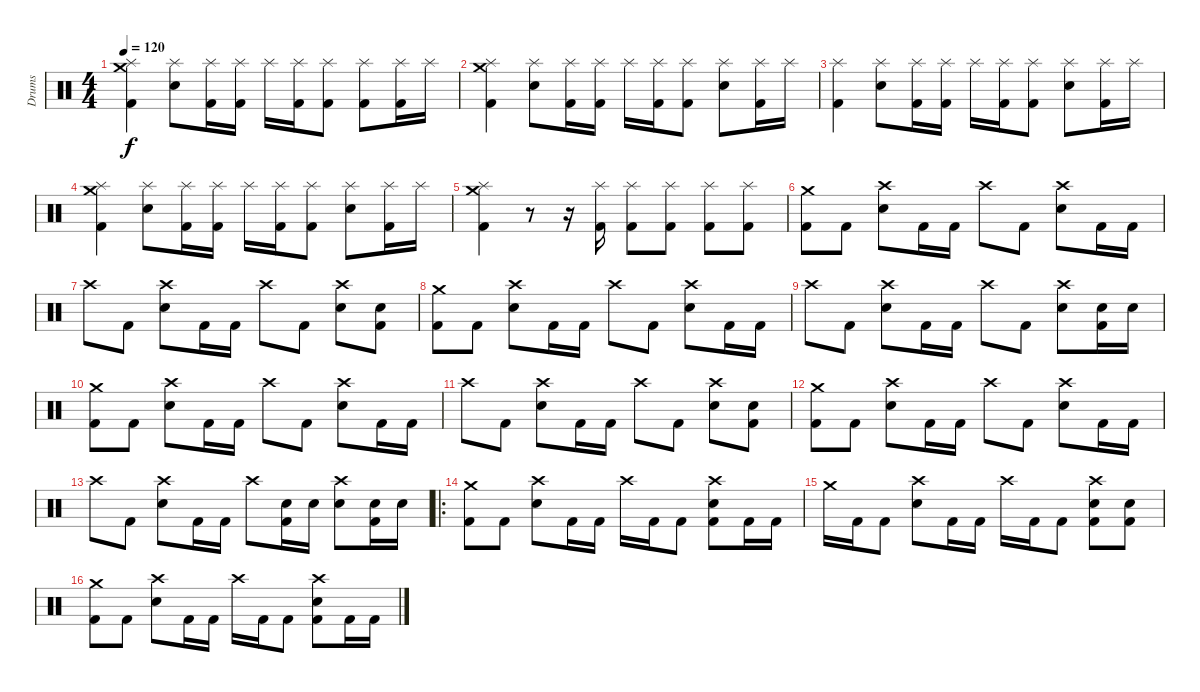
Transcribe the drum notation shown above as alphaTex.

\track ("Drums" "Drums") {instrument percussion}
\staff {score}
\articulation defaults
\ts (4 4)
\tempo 120
\clef neutral
\ks c
("Kick (hit) 2" "Splash (hit)" "Crash medium (hit)").4{dy f} ("Snare (hit) 2" "Splash (hit)").8 ("Kick (hit) 2" "Splash (hit)").16 ("Kick (hit) 2" "Splash (hit)").16 "Splash (hit)".16 ("Kick (hit) 2" "Splash (hit)").16 ("Kick (hit) 2" "Splash (hit)").8 ("Kick (hit) 2" "Splash (hit)").8 ("Kick (hit) 2" "Splash (hit)").16 "Splash (hit)".16 |
("Kick (hit) 2" "Splash (hit)" "Crash medium (hit)").4 ("Snare (hit) 2" "Splash (hit)").8 ("Kick (hit) 2" "Splash (hit)").16 ("Kick (hit) 2" "Splash (hit)").16 "Splash (hit)".16 ("Kick (hit) 2" "Splash (hit)").16 ("Kick (hit) 2" "Splash (hit)").8 ("Snare (hit) 2" "Splash (hit)").8 ("Kick (hit) 2" "Splash (hit)").16 "Splash (hit)".16 |
("Kick (hit) 2" "Splash (hit)").4 ("Snare (hit) 2" "Splash (hit)").8 ("Kick (hit) 2" "Splash (hit)").16 ("Kick (hit) 2" "Splash (hit)").16 "Splash (hit)".16 ("Kick (hit) 2" "Splash (hit)").16 ("Kick (hit) 2" "Splash (hit)").8 ("Snare (hit) 2" "Splash (hit)").8 ("Kick (hit) 2" "Splash (hit)").16 "Splash (hit)".16 |
("Kick (hit) 2" "Splash (hit)" "Crash medium (hit)").4 ("Snare (hit) 2" "Splash (hit)").8 ("Kick (hit) 2" "Splash (hit)").16 ("Kick (hit) 2" "Splash (hit)").16 "Splash (hit)".16 ("Kick (hit) 2" "Splash (hit)").16 ("Kick (hit) 2" "Splash (hit)").8 ("Snare (hit) 2" "Splash (hit)").8 ("Kick (hit) 2" "Splash (hit)").16 "Splash (hit)".16 |
("Kick (hit) 2" "Splash (hit)" "Crash medium (hit)").4 r.8 r.16 ("Kick (hit) 2" "Splash (hit)").16 ("Kick (hit) 2" "Splash (hit)").8 ("Kick (hit) 2" "Splash (hit)").8 ("Kick (hit) 2" "Splash (hit)").8 ("Kick (hit) 2" "Splash (hit)").8 |
("Kick (hit) 2" "Crash medium (hit)").8 "Kick (hit) 2".8 ("Snare (hit) 2" "Crash high (hit)").8 "Kick (hit) 2".16 "Kick (hit) 2".16 "Crash high (hit)".8 "Kick (hit) 2".8 ("Snare (hit) 2" "Crash high (hit)").8 "Kick (hit) 2".16 "Kick (hit) 2".16 |
"Crash high (hit)".8 "Kick (hit) 2".8 ("Snare (hit) 2" "Crash high (hit)").8 "Kick (hit) 2".16 "Kick (hit) 2".16 "Crash high (hit)".8 "Kick (hit) 2".8 ("Snare (hit) 2" "Crash high (hit)").8 ("Kick (hit) 2" "Snare (hit) 2").8 |
("Kick (hit) 2" "Crash medium (hit)").8 "Kick (hit) 2".8 ("Snare (hit) 2" "Crash high (hit)").8 "Kick (hit) 2".16 "Kick (hit) 2".16 "Crash high (hit)".8 "Kick (hit) 2".8 ("Snare (hit) 2" "Crash high (hit)").8 "Kick (hit) 2".16 "Kick (hit) 2".16 |
"Crash high (hit)".8 "Kick (hit) 2".8 ("Snare (hit) 2" "Crash high (hit)").8 "Kick (hit) 2".16 "Kick (hit) 2".16 "Crash high (hit)".8 "Kick (hit) 2".8 ("Snare (hit) 2" "Crash high (hit)").8 ("Kick (hit) 2" "Snare (hit) 2").16 "Snare (hit) 2".16 |
("Kick (hit) 2" "Crash medium (hit)").8 "Kick (hit) 2".8 ("Snare (hit) 2" "Crash high (hit)").8 "Kick (hit) 2".16 "Kick (hit) 2".16 "Crash high (hit)".8 "Kick (hit) 2".8 ("Snare (hit) 2" "Crash high (hit)").8 "Kick (hit) 2".16 "Kick (hit) 2".16 |
"Crash high (hit)".8 "Kick (hit) 2".8 ("Snare (hit) 2" "Crash high (hit)").8 "Kick (hit) 2".16 "Kick (hit) 2".16 "Crash high (hit)".8 "Kick (hit) 2".8 ("Snare (hit) 2" "Crash high (hit)").8 ("Kick (hit) 2" "Snare (hit) 2").8 |
("Kick (hit) 2" "Crash medium (hit)").8 "Kick (hit) 2".8 ("Snare (hit) 2" "Crash high (hit)").8 "Kick (hit) 2".16 "Kick (hit) 2".16 "Crash high (hit)".8 "Kick (hit) 2".8 ("Snare (hit) 2" "Crash high (hit)").8 "Kick (hit) 2".16 "Kick (hit) 2".16 |
"Crash high (hit)".8 "Kick (hit) 2".8 ("Snare (hit) 2" "Crash high (hit)").8 "Kick (hit) 2".16 "Kick (hit) 2".16 "Crash high (hit)".8 ("Kick (hit) 2" "Snare (hit) 2").16 "Snare (hit) 2".16 ("Snare (hit) 2" "Crash high (hit)").8 ("Kick (hit) 2" "Snare (hit) 2").16 "Snare (hit) 2".16 |
\ro
("Kick (hit) 2" "Crash medium (hit)").8 "Kick (hit) 2".8 ("Snare (hit) 2" "Crash high (hit)").8 "Kick (hit) 2".16 "Kick (hit) 2".16 "Crash high (hit)".16 "Kick (hit) 2".16 "Kick (hit) 2".8 ("Kick (hit) 2" "Snare (hit) 2" "Crash high (hit)").8 "Kick (hit) 2".16 "Kick (hit) 2".16 |
"Crash medium (hit)".16 "Kick (hit) 2".16 "Kick (hit) 2".8 ("Snare (hit) 2" "Crash high (hit)").8 "Kick (hit) 2".16 "Kick (hit) 2".16 "Crash high (hit)".16 "Kick (hit) 2".16 "Kick (hit) 2".8 ("Kick (hit) 2" "Snare (hit) 2" "Crash high (hit)").8 ("Kick (hit) 2" "Snare (hit) 2").8 |
("Kick (hit) 2" "Crash medium (hit)").8 "Kick (hit) 2".8 ("Snare (hit) 2" "Crash high (hit)").8 "Kick (hit) 2".16 "Kick (hit) 2".16 "Crash high (hit)".16 "Kick (hit) 2".16 "Kick (hit) 2".8 ("Kick (hit) 2" "Snare (hit) 2" "Crash high (hit)").8 "Kick (hit) 2".16 "Kick (hit) 2".16
